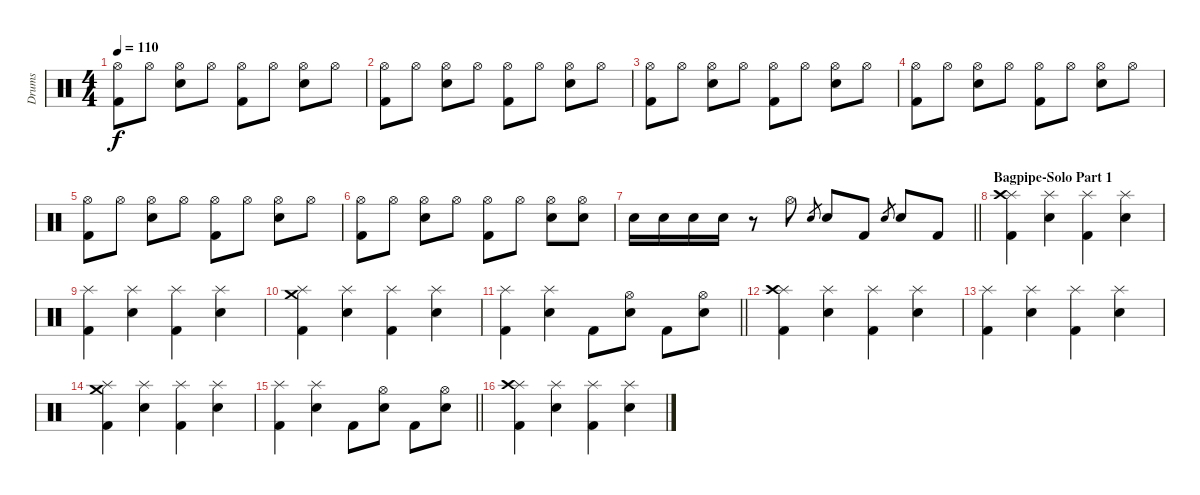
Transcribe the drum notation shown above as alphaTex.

\track ("Drums" "Drums") {instrument percussion}
\staff {score}
\articulation defaults
\ts (4 4)
\tempo 110
\clef neutral
\ks c
("Hi-Hat (open)" "Kick (hit) 2").8{dy f} "Hi-Hat (open)".8 ("Hi-Hat (open)" "Snare (hit) 2").8 "Hi-Hat (open)".8 ("Hi-Hat (open)" "Kick (hit) 2").8 "Hi-Hat (open)".8 ("Hi-Hat (open)" "Snare (hit) 2").8 "Hi-Hat (open)".8 |
("Hi-Hat (open)" "Kick (hit) 2").8 "Hi-Hat (open)".8 ("Hi-Hat (open)" "Snare (hit) 2").8 "Hi-Hat (open)".8 ("Hi-Hat (open)" "Kick (hit) 2").8 "Hi-Hat (open)".8 ("Hi-Hat (open)" "Snare (hit) 2").8 "Hi-Hat (open)".8 |
("Hi-Hat (open)" "Kick (hit) 2").8 "Hi-Hat (open)".8 ("Hi-Hat (open)" "Snare (hit) 2").8 "Hi-Hat (open)".8 ("Hi-Hat (open)" "Kick (hit) 2").8 "Hi-Hat (open)".8 ("Hi-Hat (open)" "Snare (hit) 2").8 "Hi-Hat (open)".8 |
("Hi-Hat (open)" "Kick (hit) 2").8 "Hi-Hat (open)".8 ("Hi-Hat (open)" "Snare (hit) 2").8 "Hi-Hat (open)".8 ("Hi-Hat (open)" "Kick (hit) 2").8 "Hi-Hat (open)".8 ("Hi-Hat (open)" "Snare (hit) 2").8 "Hi-Hat (open)".8 |
("Hi-Hat (open)" "Kick (hit) 2").8 "Hi-Hat (open)".8 ("Hi-Hat (open)" "Snare (hit) 2").8 "Hi-Hat (open)".8 ("Hi-Hat (open)" "Kick (hit) 2").8 "Hi-Hat (open)".8 ("Hi-Hat (open)" "Snare (hit) 2").8 "Hi-Hat (open)".8 |
("Hi-Hat (open)" "Kick (hit) 2").8 "Hi-Hat (open)".8 ("Hi-Hat (open)" "Snare (hit) 2").8 "Hi-Hat (open)".8 ("Hi-Hat (open)" "Kick (hit) 2").8 "Hi-Hat (open)".8 ("Hi-Hat (open)" "Snare (hit) 2").8 ("Hi-Hat (open)" "Snare (hit) 2").8 |
\barLineRight lightlight "Snare (hit) 2".16 "Snare (hit) 2".16 "Snare (hit) 2".16 "Snare (hit) 2".16
r.8 "Hi-Hat (open)".8 "Snare (hit) 2".8{gr} "Snare (hit) 2".8 "Kick (hit) 2".8 "Snare (hit) 2".8{gr} "Snare (hit) 2".8 "Kick (hit) 2".8 |
\section ("" "Bagpipe-Solo Part 1")
("Splash (hit)" "Crash high (hit)" "Kick (hit) 2").4 ("Splash (hit)" "Snare (hit) 2").4 ("Splash (hit)" "Kick (hit) 2").4 ("Splash (hit)" "Snare (hit) 2").4 |
("Splash (hit)" "Kick (hit) 2").4 ("Splash (hit)" "Snare (hit) 2").4 ("Splash (hit)" "Kick (hit) 2").4 ("Splash (hit)" "Snare (hit) 2").4 |
("Splash (hit)" "Crash medium (hit)" "Kick (hit) 2").4 ("Splash (hit)" "Snare (hit) 2").4 ("Splash (hit)" "Kick (hit) 2").4 ("Splash (hit)" "Snare (hit) 2").4 |
\barLineRight lightlight
("Splash (hit)" "Kick (hit) 2").4 ("Splash (hit)" "Snare (hit) 2").4 "Kick (hit) 2".8 ("Hi-Hat (open)" "Snare (hit) 2").8 "Kick (hit) 2".8 ("Hi-Hat (open)" "Snare (hit) 2").8 |
("Splash (hit)" "Crash high (hit)" "Kick (hit) 2").4 ("Splash (hit)" "Snare (hit) 2").4 ("Splash (hit)" "Kick (hit) 2").4 ("Splash (hit)" "Snare (hit) 2").4 |
("Splash (hit)" "Kick (hit) 2").4 ("Splash (hit)" "Snare (hit) 2").4 ("Splash (hit)" "Kick (hit) 2").4 ("Splash (hit)" "Snare (hit) 2").4 |
("Splash (hit)" "Crash medium (hit)" "Kick (hit) 2").4 ("Splash (hit)" "Snare (hit) 2").4 ("Splash (hit)" "Kick (hit) 2").4 ("Splash (hit)" "Snare (hit) 2").4 |
\barLineRight lightlight
("Splash (hit)" "Kick (hit) 2").4 ("Splash (hit)" "Snare (hit) 2").4 "Kick (hit) 2".8 ("Hi-Hat (open)" "Snare (hit) 2").8 "Kick (hit) 2".8 ("Hi-Hat (open)" "Snare (hit) 2").8 |
("Splash (hit)" "Crash high (hit)" "Kick (hit) 2").4 ("Splash (hit)" "Snare (hit) 2").4 ("Splash (hit)" "Kick (hit) 2").4 ("Splash (hit)" "Snare (hit) 2").4
